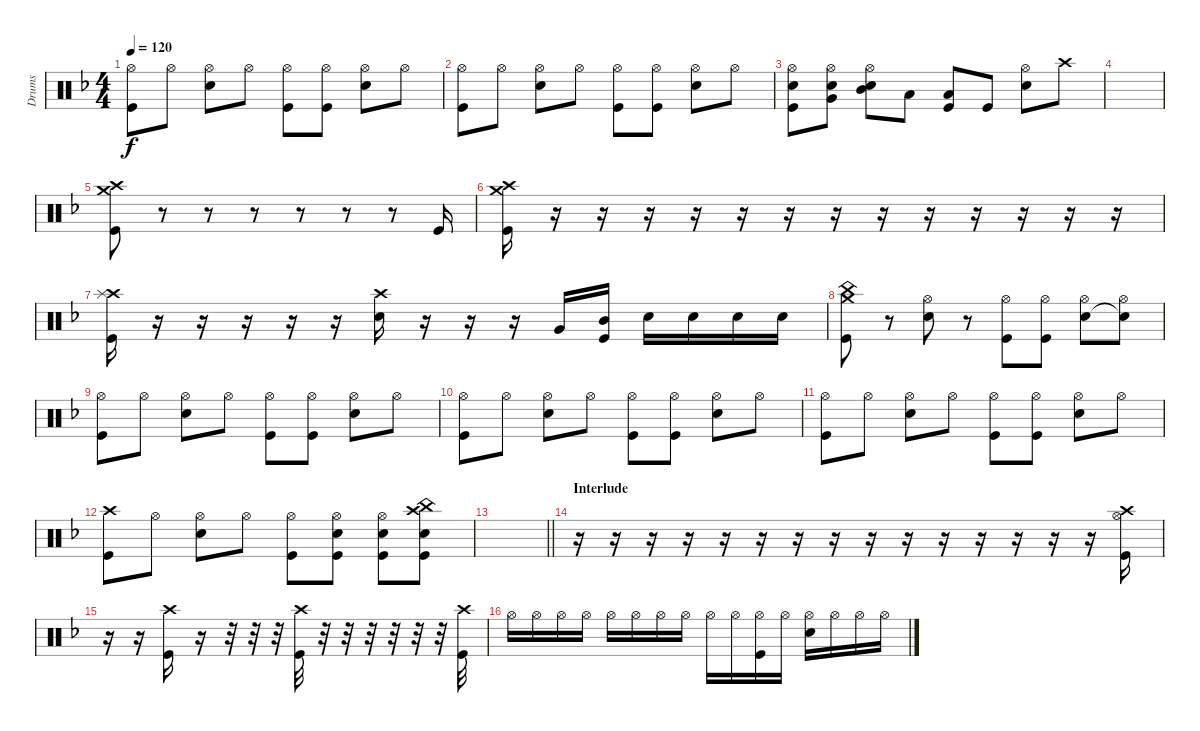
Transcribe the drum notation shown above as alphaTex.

\track ("Drums" "Drums") {instrument percussion}
\staff {score}
\articulation defaults
\ts (4 4)
\tempo 120
\clef neutral
\ks f
("Hi-Hat (open)" "Kick (hit)").8{dy f} "Hi-Hat (open)".8 ("Hi-Hat (open)" "Snare (hit) 2").8 "Hi-Hat (open)".8 ("Hi-Hat (open)" "Kick (hit)").8 ("Hi-Hat (open)" "Kick (hit)").8 ("Hi-Hat (open)" "Snare (hit) 2").8 "Hi-Hat (open)".8 |
("Hi-Hat (open)" "Kick (hit)").8 "Hi-Hat (open)".8 ("Hi-Hat (open)" "Snare (hit) 2").8 "Hi-Hat (open)".8 ("Hi-Hat (open)" "Kick (hit)").8 ("Hi-Hat (open)" "Kick (hit)").8 ("Hi-Hat (open)" "Snare (hit) 2").8 "Hi-Hat (open)".8 |
("Hi-Hat (open)" "Snare (hit) 2" "Kick (hit)").8 ("Hi-Hat (open)" "Snare (hit) 2" "Very Low Tom (hit)").8 ("Hi-Hat (open)" "Snare (hit) 2" "Mid Tom (hit)").8 "Low Tom (hit)".8 ("Low Tom (hit)" "Kick (hit)").8 "Kick (hit)".8 ("Hi-Hat (open)" "Snare (hit) 2").8 "Crash high (hit)".8 |
|
("Crash high (hit)" "Crash medium (hit)" "Kick (hit)").8 r.8 r.8 r.8 r.8 r.8 r.8 "Kick (hit)".16 |
("Crash high (hit)" "Crash medium (hit)" "Kick (hit)").16 r.16 r.16 r.16 r.16 r.16 r.16 r.16 r.16 r.16 r.16 r.16 r.16 r.16 |
("Crash high (hit)" "Splash (hit)" "Kick (hit)").16 r.16 r.16 r.16 r.16 r.16 ("Crash high (hit)" "Snare (hit) 2").16 r.16 r.16 r.16 "Very Low Tom (hit)".16 ("Mid Tom (hit)" "Kick (hit)").16 "Snare (hit) 2".16 "Snare (hit) 2".16 "Snare (hit) 2".16 "Snare (hit) 2".16 |
("Crash medium (hit)" "China (hit)" "Kick (hit)").8 r.8 ("Hi-Hat (open)" "Snare (hit) 2").8 r.8 ("Hi-Hat (open)" "Kick (hit)").8 ("Hi-Hat (open)" "Kick (hit)").8 ("Hi-Hat (open)" "Snare (hit) 2").8 ("Hi-Hat (open)" "Snare (hit)"{t}).8 |
("Hi-Hat (open)" "Kick (hit)").8 "Hi-Hat (open)".8 ("Hi-Hat (open)" "Snare (hit) 2").8 "Hi-Hat (open)".8 ("Hi-Hat (open)" "Kick (hit)").8 ("Hi-Hat (open)" "Kick (hit)").8 ("Hi-Hat (open)" "Snare (hit) 2").8 "Hi-Hat (open)".8 |
("Hi-Hat (open)" "Kick (hit)").8 "Hi-Hat (open)".8 ("Hi-Hat (open)" "Snare (hit) 2").8 "Hi-Hat (open)".8 ("Hi-Hat (open)" "Kick (hit)").8 ("Hi-Hat (open)" "Kick (hit)").8 ("Hi-Hat (open)" "Snare (hit) 2").8 "Hi-Hat (open)".8 |
("Hi-Hat (open)" "Kick (hit)").8 "Hi-Hat (open)".8 ("Hi-Hat (open)" "Snare (hit) 2").8 "Hi-Hat (open)".8 ("Hi-Hat (open)" "Kick (hit)").8 ("Hi-Hat (open)" "Kick (hit)").8 ("Hi-Hat (open)" "Snare (hit) 2").8 "Hi-Hat (open)".8 |
("Crash high (hit)" "Kick (hit)").8 "Hi-Hat (open)".8 ("Hi-Hat (open)" "Snare (hit) 2").8 "Hi-Hat (open)".8 ("Hi-Hat (open)" "Kick (hit)").8 ("Hi-Hat (open)" "Snare (hit) 2" "Kick (hit)").8 ("Hi-Hat (open)" "Snare (hit) 2" "Kick (hit)").8 ("China (hit)" "Crash high (hit)" "Snare (hit) 2" "Kick (hit)").8 |
\barLineRight lightlight
|
\section ("" "Interlude")
r.16 r.16 r.16 r.16 r.16 r.16 r.16 r.16 r.16 r.16 r.16 r.16 r.16 r.16 r.16 ("Hi-Hat (open)" "Crash high (hit)" "Kick (hit)").16 |
r.16 r.16 ("Crash high (hit)" "Kick (hit)").16 r.16 r.32 r.32 r.32 ("Crash high (hit)" "Kick (hit)").32 r.32 r.32 r.32 r.32 r.32 r.32 ("Crash high (hit)" "Kick (hit)").32 |
"Hi-Hat (open)".16 "Hi-Hat (open)".16 "Hi-Hat (open)".16 "Hi-Hat (open)".16 "Hi-Hat (open)".16 "Hi-Hat (open)".16 "Hi-Hat (open)".16 "Hi-Hat (open)".16 "Hi-Hat (open)".16 "Hi-Hat (open)".16 ("Hi-Hat (open)" "Kick (hit)").16 "Hi-Hat (open)".16 ("Hi-Hat (open)" "Snare (hit) 2").16 "Hi-Hat (open)".16 "Hi-Hat (open)".16 "Hi-Hat (open)".16
